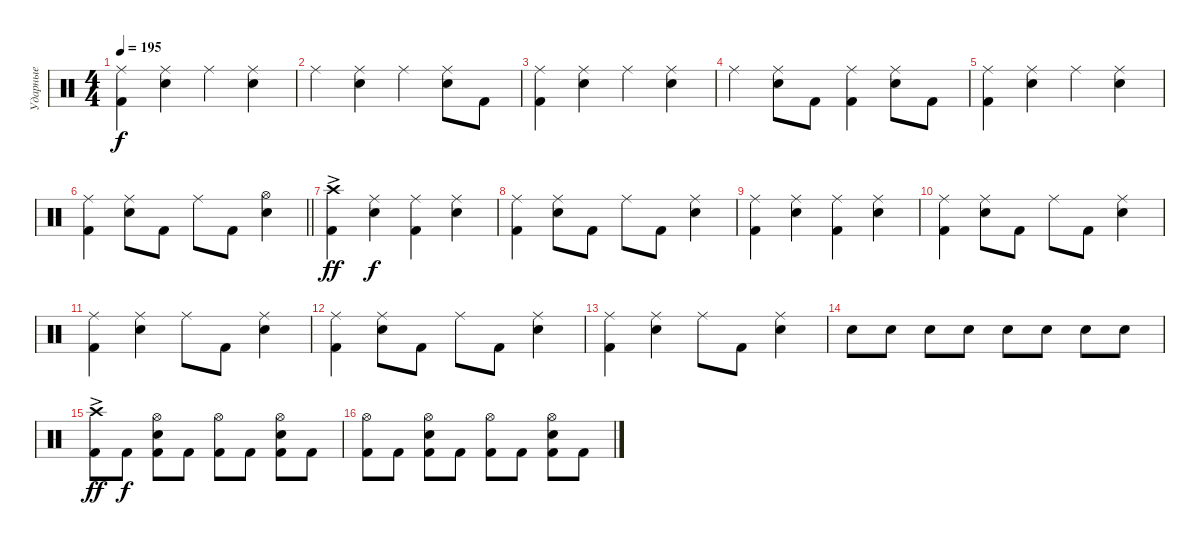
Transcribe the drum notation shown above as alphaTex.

\track ("Ударные" "Ударные") {instrument percussion}
\staff {score}
\articulation defaults
\ts (4 4)
\tempo 195
\clef neutral
\ks c
("Ride (middle)" "Kick (hit) 2").4{dy f} ("Ride (middle)" "Snare (hit) 2").4 "Ride (middle)".4 ("Ride (middle)" "Snare (hit) 2").4 |
"Ride (middle)".4 ("Ride (middle)" "Snare (hit) 2").4 "Ride (middle)".4 ("Ride (middle)" "Snare (hit) 2").8 "Kick (hit) 2".8 |
("Ride (middle)" "Kick (hit) 2").4 ("Ride (middle)" "Snare (hit) 2").4 "Ride (middle)".4 ("Ride (middle)" "Snare (hit) 2").4 |
"Ride (middle)".4 ("Ride (middle)" "Snare (hit) 2").8 "Kick (hit) 2".8 ("Ride (middle)" "Kick (hit) 2").4 ("Ride (middle)" "Snare (hit) 2").8 "Kick (hit) 2".8 |
("Ride (middle)" "Kick (hit) 2").4 ("Ride (middle)" "Snare (hit) 2").4 "Ride (middle)".4 ("Ride (middle)" "Snare (hit) 2").4 |
\barLineRight lightlight
("Ride (middle)" "Kick (hit) 2").4 ("Ride (middle)" "Snare (hit) 2").8 "Kick (hit) 2".8 "Ride (middle)".8 "Kick (hit) 2".8 ("Hi-Hat (open)" "Snare (hit) 2").4 |
("Crash high (hit)"{ac} "Kick (hit) 2").4{dy ff} ("Ride (middle)" "Snare (hit) 2").4{dy f} ("Ride (middle)" "Kick (hit) 2").4 ("Ride (middle)" "Snare (hit) 2").4 |
("Ride (middle)" "Kick (hit) 2").4 ("Ride (middle)" "Snare (hit) 2").8 "Kick (hit) 2".8 "Ride (middle)".8 "Kick (hit) 2".8 ("Ride (middle)" "Snare (hit) 2").4 |
("Ride (middle)" "Kick (hit) 2").4 ("Ride (middle)" "Snare (hit) 2").4 ("Ride (middle)" "Kick (hit) 2").4 ("Ride (middle)" "Snare (hit) 2").4 |
("Ride (middle)" "Kick (hit) 2").4 ("Ride (middle)" "Snare (hit) 2").8 "Kick (hit) 2".8 "Ride (middle)".8 "Kick (hit) 2".8 ("Ride (middle)" "Snare (hit) 2").4 |
("Ride (middle)" "Kick (hit) 2").4 ("Ride (middle)" "Snare (hit) 2").4 "Ride (middle)".8 "Kick (hit) 2".8 ("Ride (middle)" "Snare (hit) 2").4 |
("Ride (middle)" "Kick (hit) 2").4 ("Ride (middle)" "Snare (hit) 2").8 "Kick (hit) 2".8 "Ride (middle)".8 "Kick (hit) 2".8 ("Ride (middle)" "Snare (hit) 2").4 |
("Ride (middle)" "Kick (hit) 2").4 ("Ride (middle)" "Snare (hit) 2").4 "Ride (middle)".8 "Kick (hit) 2".8 ("Ride (middle)" "Snare (hit) 2").4 |
"Snare (hit) 2".8 "Snare (hit) 2".8 "Snare (hit) 2".8 "Snare (hit) 2".8 "Snare (hit) 2".8 "Snare (hit) 2".8 "Snare (hit) 2".8 "Snare (hit) 2".8 |
("Crash high (hit)"{ac} "Kick (hit) 2").8{dy ff} "Kick (hit) 2".8{dy f} ("Hi-Hat (open)" "Snare (hit) 2" "Kick (hit) 2").8 "Kick (hit) 2".8 ("Hi-Hat (open)" "Kick (hit) 2").8 "Kick (hit) 2".8 ("Hi-Hat (open)" "Snare (hit) 2" "Kick (hit) 2").8 "Kick (hit) 2".8 |
("Hi-Hat (open)" "Kick (hit) 2").8 "Kick (hit) 2".8 ("Hi-Hat (open)" "Snare (hit) 2" "Kick (hit) 2").8 "Kick (hit) 2".8 ("Hi-Hat (open)" "Kick (hit) 2").8 "Kick (hit) 2".8 ("Hi-Hat (open)" "Snare (hit) 2" "Kick (hit) 2").8 "Kick (hit) 2".8
